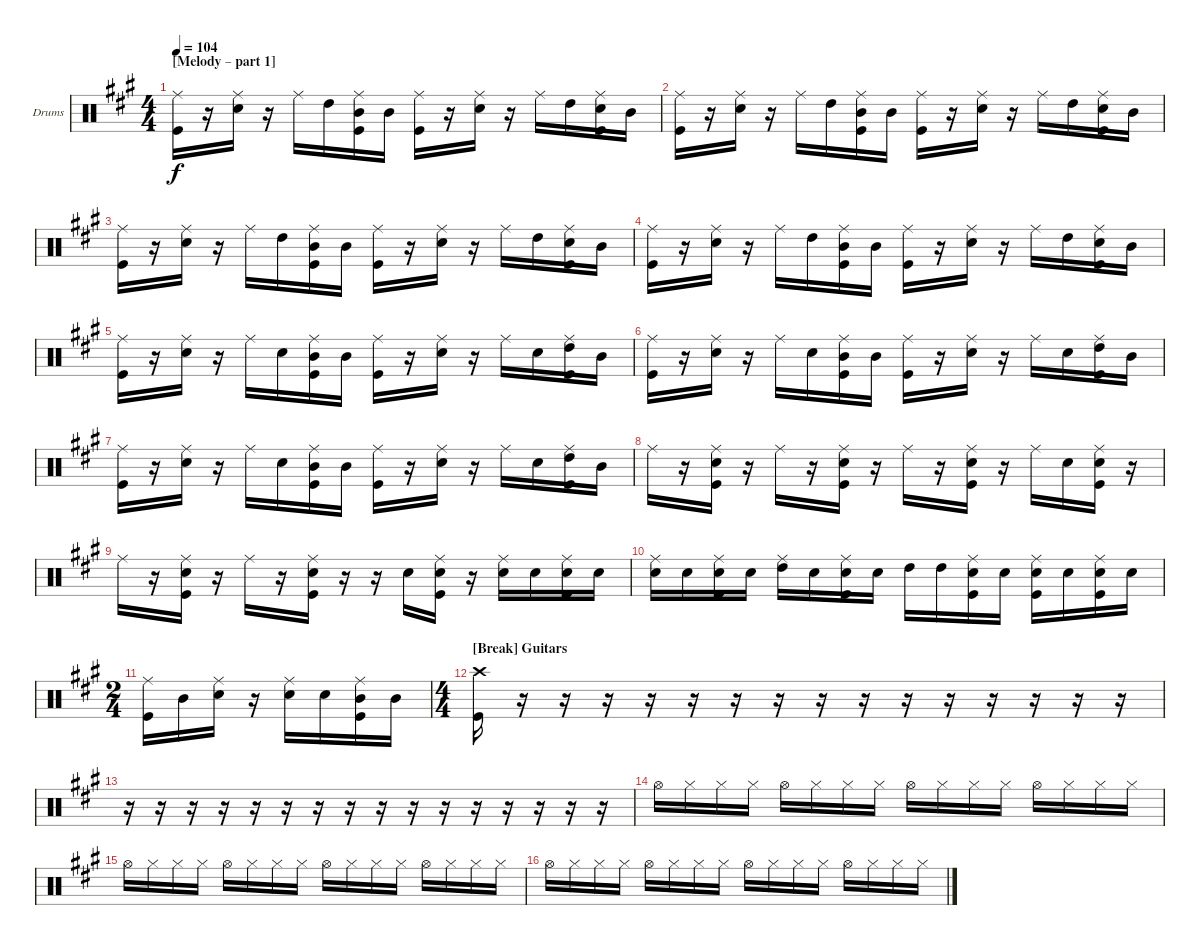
\bracketExtendMode groupsimilarinstruments
\firstSystemTrackNameOrientation horizontal
\otherSystemsTrackNameOrientation horizontal
\track ("Drumkit" "Drums") {instrument percussion}
\staff {score}
\articulation defaults
\ts (4 4)
\section ("" "[Melody – part 1] ")
\tempo 104
\clef neutral
\ks a
("Ride (middle)" "Kick (hit)").16{dy f} r.16 ("Ride (middle)" "Snare (hit) 2").16 r.16 "Ride (middle)".16 "High Tom (hit)".16 ("Ride (middle)" "Mid Tom (hit)" "Kick (hit)").16 "Mid Tom (hit)".16 ("Ride (middle)" "Kick (hit)").16 r.16 ("Ride (middle)" "Snare (hit) 2").16 r.16 "Ride (middle)".16 "High Tom (hit)".16 ("Ride (middle)" "Snare (hit) 2" "Kick (hit)").16 "Mid Tom (hit)".16 |
("Ride (middle)" "Kick (hit)").16 r.16 ("Ride (middle)" "Snare (hit) 2").16 r.16 "Ride (middle)".16 "High Tom (hit)".16 ("Ride (middle)" "Mid Tom (hit)" "Kick (hit)").16 "Mid Tom (hit)".16 ("Ride (middle)" "Kick (hit)").16 r.16 ("Ride (middle)" "Snare (hit) 2").16 r.16 "Ride (middle)".16 "High Tom (hit)".16 ("Ride (middle)" "Snare (hit) 2" "Kick (hit)").16 "Mid Tom (hit)".16 |
("Ride (middle)" "Kick (hit)").16 r.16 ("Ride (middle)" "Snare (hit) 2").16 r.16 "Ride (middle)".16 "High Tom (hit)".16 ("Ride (middle)" "Mid Tom (hit)" "Kick (hit)").16 "Mid Tom (hit)".16 ("Ride (middle)" "Kick (hit)").16 r.16 ("Ride (middle)" "Snare (hit) 2").16 r.16 "Ride (middle)".16 "High Tom (hit)".16 ("Ride (middle)" "Snare (hit) 2" "Kick (hit)").16 "Mid Tom (hit)".16 |
("Ride (middle)" "Kick (hit)").16 r.16 ("Ride (middle)" "Snare (hit) 2").16 r.16 "Ride (middle)".16 "High Tom (hit)".16 ("Ride (middle)" "Mid Tom (hit)" "Kick (hit)").16 "Mid Tom (hit)".16 ("Ride (middle)" "Kick (hit)").16 r.16 ("Ride (middle)" "Snare (hit) 2").16 r.16 "Ride (middle)".16 "High Tom (hit)".16 ("Ride (middle)" "Snare (hit) 2" "Kick (hit)").16 "Mid Tom (hit)".16 |
("Ride (middle)" "Kick (hit)").16 r.16 ("Ride (middle)" "Snare (hit) 2").16 r.16 "Ride (middle)".16 "Snare (hit) 2".16 ("Ride (middle)" "Mid Tom (hit)" "Kick (hit)").16 "Mid Tom (hit)".16 ("Ride (middle)" "Kick (hit)").16 r.16 ("Ride (middle)" "Snare (hit) 2").16 r.16 "Ride (middle)".16 "Snare (hit) 2".16 ("Ride (middle)" "High Tom (hit)" "Kick (hit)").16 "Mid Tom (hit)".16 |
("Ride (middle)" "Kick (hit)").16 r.16 ("Ride (middle)" "Snare (hit) 2").16 r.16 "Ride (middle)".16 "Snare (hit) 2".16 ("Ride (middle)" "Mid Tom (hit)" "Kick (hit)").16 "Mid Tom (hit)".16 ("Ride (middle)" "Kick (hit)").16 r.16 ("Ride (middle)" "Snare (hit) 2").16 r.16 "Ride (middle)".16 "Snare (hit) 2".16 ("Ride (middle)" "High Tom (hit)" "Kick (hit)").16 "Mid Tom (hit)".16 |
("Ride (middle)" "Kick (hit)").16 r.16 ("Ride (middle)" "Snare (hit) 2").16 r.16 "Ride (middle)".16 "Snare (hit) 2".16 ("Ride (middle)" "Mid Tom (hit)" "Kick (hit)").16 "Mid Tom (hit)".16 ("Ride (middle)" "Kick (hit)").16 r.16 ("Ride (middle)" "Snare (hit) 2").16 r.16 "Ride (middle)".16 "Snare (hit) 2".16 ("Ride (middle)" "High Tom (hit)" "Kick (hit)").16 "Mid Tom (hit)".16 |
"Ride (middle)".16 r.16 ("Ride (middle)" "Snare (hit) 2" "Kick (hit)").16 r.16 "Ride (middle)".16 r.16 ("Ride (middle)" "Snare (hit) 2" "Kick (hit)").16 r.16 "Ride (middle)".16 r.16 ("Ride (middle)" "Snare (hit) 2" "Kick (hit)").16 r.16 "Ride (middle)".16 "Snare (hit) 2".16 ("Ride (middle)" "Snare (hit) 2" "Kick (hit)").16 r.16 |
"Ride (middle)".16 r.16 ("Ride (middle)" "Snare (hit) 2" "Kick (hit)").16 r.16 "Ride (middle)".16 r.16 ("Ride (middle)" "Snare (hit) 2" "Kick (hit)").16 r.16 r.16 "Snare (hit) 2".16 ("Ride (middle)" "Snare (hit) 2" "Kick (hit)").16 r.16 ("Ride (middle)" "Snare (hit) 2").16 "Snare (hit) 2".16 ("Ride (middle)" "Snare (hit) 2" "Kick (hit)").16 "Snare (hit) 2".16 |
("Ride (middle)" "Snare (hit) 2").16 "Snare (hit) 2".16 ("Ride (middle)" "Snare (hit) 2" "Kick (hit)").16 "Snare (hit) 2".16 ("Ride (middle)" "High Tom (hit)").16 "Snare (hit) 2".16 ("Ride (middle)" "Snare (hit) 2" "Kick (hit)").16 "Snare (hit) 2".16 "High Tom (hit)".16 "High Tom (hit)".16 ("Ride (middle)" "Snare (hit) 2" "Kick (hit)").16 "Snare (hit) 2".16 ("Ride (middle)" "Snare (hit) 2" "Kick (hit)").16 "Snare (hit) 2".16 ("Ride (middle)" "Snare (hit) 2" "Kick (hit)").16 "Snare (hit) 2".16 |
\ts (2 4)
("Ride (middle)" "Kick (hit)").16 "Mid Tom (hit)".16 ("Ride (middle)" "Snare (hit) 2").16 r.16 ("Ride (middle)" "Snare (hit) 2").16 "Snare (hit) 2".16 ("Ride (middle)" "Mid Tom (hit)" "Kick (hit)").16 "Mid Tom (hit)".16 |
\ts (4 4)
\section ("" "[Break] Guitars")
("Crash high (hit)" "Kick (hit)").16 r.16 r.16 r.16 r.16 r.16 r.16 r.16 r.16 r.16 r.16 r.16 r.16 r.16 r.16 r.16 |
r.16 r.16 r.16 r.16 r.16 r.16 r.16 r.16 r.16 r.16 r.16 r.16 r.16 r.16 r.16 r.16 |
"Hi-Hat (open)".16 "Hi-Hat (closed)".16 "Hi-Hat (closed)".16 "Hi-Hat (closed)".16 "Hi-Hat (open)".16 "Hi-Hat (closed)".16 "Hi-Hat (closed)".16 "Hi-Hat (closed)".16 "Hi-Hat (open)".16 "Hi-Hat (closed)".16 "Hi-Hat (closed)".16 "Hi-Hat (closed)".16 "Hi-Hat (open)".16 "Hi-Hat (closed)".16 "Hi-Hat (closed)".16 "Hi-Hat (closed)".16 |
"Hi-Hat (open)".16 "Hi-Hat (closed)".16 "Hi-Hat (closed)".16 "Hi-Hat (closed)".16 "Hi-Hat (open)".16 "Hi-Hat (closed)".16 "Hi-Hat (closed)".16 "Hi-Hat (closed)".16 "Hi-Hat (open)".16 "Hi-Hat (closed)".16 "Hi-Hat (closed)".16 "Hi-Hat (closed)".16 "Hi-Hat (open)".16 "Hi-Hat (closed)".16 "Hi-Hat (closed)".16 "Hi-Hat (closed)".16 |
"Hi-Hat (open)".16 "Hi-Hat (closed)".16 "Hi-Hat (closed)".16 "Hi-Hat (closed)".16 "Hi-Hat (open)".16 "Hi-Hat (closed)".16 "Hi-Hat (closed)".16 "Hi-Hat (closed)".16 "Hi-Hat (open)".16 "Hi-Hat (closed)".16 "Hi-Hat (closed)".16 "Hi-Hat (closed)".16 "Hi-Hat (open)".16 "Hi-Hat (closed)".16 "Hi-Hat (closed)".16 "Hi-Hat (closed)".16
